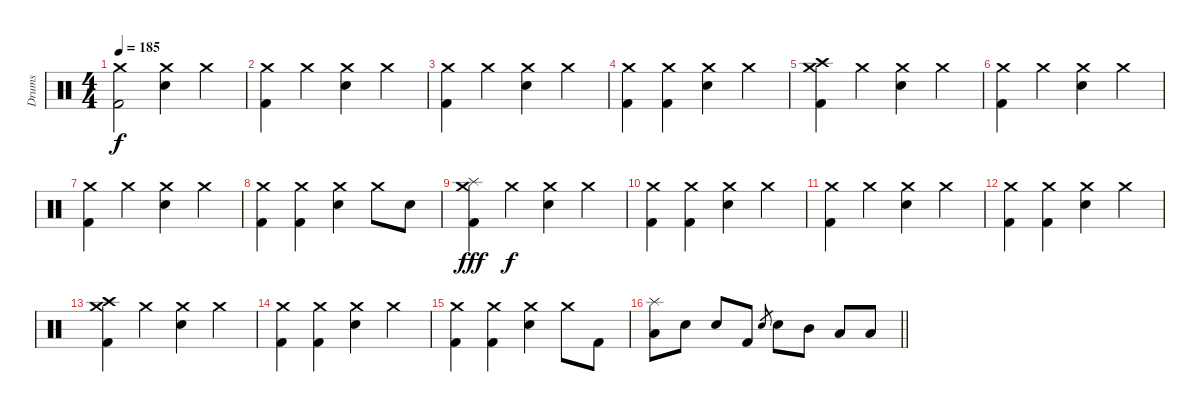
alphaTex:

\track ("Drums" "Drums") {instrument percussion}
\staff {score}
\articulation defaults
\ts (4 4)
\tempo 185
\clef neutral
\ks c
("Crash medium (hit)" "Kick (hit) 2").2{dy f} ("Crash medium (hit)" "Electric Snare (hit)").4 "Crash medium (hit)".4 |
("Crash medium (hit)" "Kick (hit) 2").4 "Crash medium (hit)".4 ("Crash medium (hit)" "Electric Snare (hit)").4 "Crash medium (hit)".4 |
("Crash medium (hit)" "Kick (hit) 2").4 "Crash medium (hit)".4 ("Crash medium (hit)" "Electric Snare (hit)").4 "Crash medium (hit)".4 |
("Crash medium (hit)" "Kick (hit) 2").4 ("Crash medium (hit)" "Kick (hit) 2").4 ("Crash medium (hit)" "Electric Snare (hit)").4 "Crash medium (hit)".4 |
("Crash medium (hit)" "Crash high (hit)" "Kick (hit) 2").4 "Crash medium (hit)".4 ("Crash medium (hit)" "Electric Snare (hit)").4 "Crash medium (hit)".4 |
("Crash medium (hit)" "Kick (hit) 2").4 "Crash medium (hit)".4 ("Crash medium (hit)" "Electric Snare (hit)").4 "Crash medium (hit)".4 |
("Crash medium (hit)" "Kick (hit) 2").4 "Crash medium (hit)".4 ("Crash medium (hit)" "Electric Snare (hit)").4 "Crash medium (hit)".4 |
("Crash medium (hit)" "Kick (hit) 2").4 ("Crash medium (hit)" "Kick (hit) 2").4 ("Crash medium (hit)" "Electric Snare (hit)").4 "Crash medium (hit)".8 "Electric Snare (hit)".8 |
("Crash medium (hit)" "Splash (hit)" "Kick (hit) 2").4{dy fff} "Crash medium (hit)".4{dy f} ("Crash medium (hit)" "Electric Snare (hit)").4 "Crash medium (hit)".4 |
("Crash medium (hit)" "Kick (hit) 2").4 ("Crash medium (hit)" "Kick (hit) 2").4 ("Crash medium (hit)" "Electric Snare (hit)").4 "Crash medium (hit)".4 |
("Crash medium (hit)" "Kick (hit) 2").4 "Crash medium (hit)".4 ("Crash medium (hit)" "Electric Snare (hit)").4 "Crash medium (hit)".4 |
("Crash medium (hit)" "Kick (hit) 2").4 ("Crash medium (hit)" "Kick (hit) 2").4 ("Crash medium (hit)" "Electric Snare (hit)").4 "Crash medium (hit)".4 |
("Crash medium (hit)" "Crash high (hit)" "Kick (hit) 2").4 "Crash medium (hit)".4 ("Crash medium (hit)" "Electric Snare (hit)").4 "Crash medium (hit)".4 |
("Crash medium (hit)" "Kick (hit) 2").4 ("Crash medium (hit)" "Kick (hit) 2").4 ("Crash medium (hit)" "Electric Snare (hit)").4 "Crash medium (hit)".4 |
("Crash medium (hit)" "Kick (hit) 2").4 ("Crash medium (hit)" "Kick (hit) 2").4 ("Crash medium (hit)" "Electric Snare (hit)").4 "Crash medium (hit)".8 "Kick (hit) 2".8 |
\barLineRight lightlight
("Splash (hit)" "Low Tom (hit)").8 "Electric Snare (hit)".8 "Electric Snare (hit)".8 "Kick (hit) 2".8 "Electric Snare (hit)".8{gr} "Electric Snare (hit)".8 "Mid Tom (hit)".8 "Low Tom (hit)".8 "Low Tom (hit)".8
